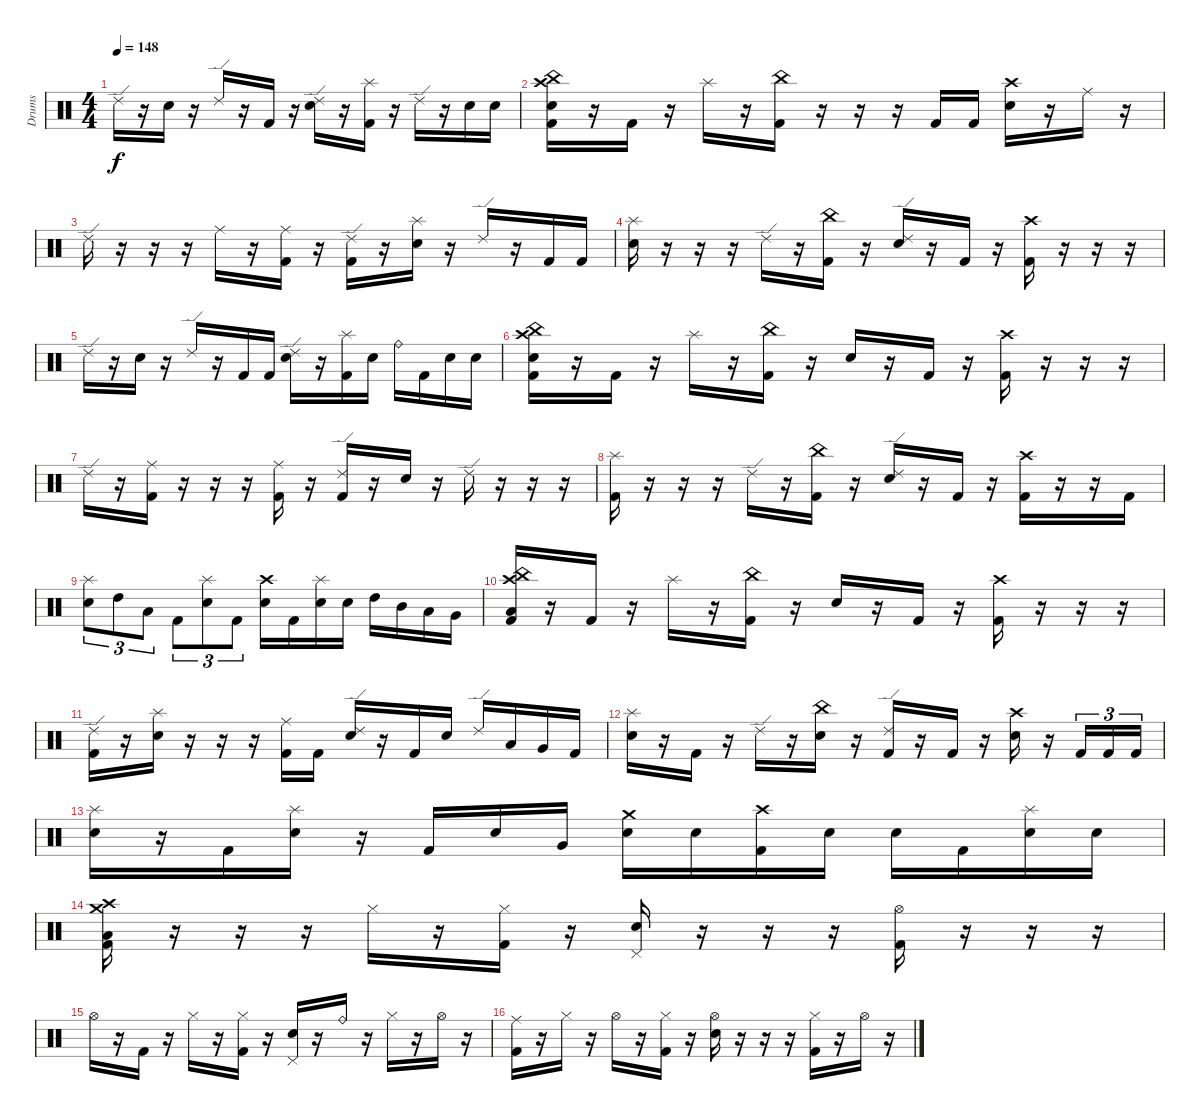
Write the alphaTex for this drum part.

\track ("Drums" "Drums") {instrument percussion}
\staff {score}
\articulation defaults
\ts (4 4)
\tempo 148
\clef neutral
\ks c "Ride (edge) 2".16{dy f}
r.16 "Electric Snare (hit)".16 r.16 "Ride (edge) 2".16 r.16 "Kick (hit) 2".16 r.16 ("Ride (edge) 2" "Electric Snare (hit)").16 r.16 ("Splash (hit)" "Kick (hit) 2").16 r.16 "Ride (edge) 2".16 r.16 "Electric Snare (hit)".16 "Electric Snare (hit)".16 |
("Crash high (hit)" "China (hit)" "Electric Snare (hit)" "Kick (hit) 2").16 r.16 "Kick (hit) 2".16 r.16 "Splash (hit)".16 r.16 ("China (hit)" "Kick (hit) 2").16 r.16 r.16 r.16 "Kick (hit) 2".16 "Kick (hit) 2".16 ("Crash high (hit)" "Electric Snare (hit)").16 r.16 "Ride (middle)".16 r.16 |
"Ride (edge) 2".16 r.16 r.16 r.16 "Ride (middle)".16 r.16 ("Ride (middle)" "Kick (hit) 2").16 r.16 ("Ride (edge) 2" "Kick (hit) 2").16 r.16 ("Splash (hit)" "Electric Snare (hit)").16 r.16 "Ride (edge) 2".16 r.16 "Kick (hit) 2".16 "Kick (hit) 2".16 |
("Splash (hit)" "Electric Snare (hit)").16 r.16 r.16 r.16 "Ride (edge) 2".16 r.16 ("China (hit)" "Kick (hit) 2").16 r.16 ("Ride (edge) 2" "Electric Snare (hit)").16 r.16 "Kick (hit) 2".16 r.16 ("Crash high (hit)" "Kick (hit) 2").16 r.16 r.16 r.16 |
"Ride (edge) 2".16 r.16 "Electric Snare (hit)".16 r.16 "Ride (edge) 2".16 r.16 "Kick (hit) 2".16 "Kick (hit) 2".16 ("Ride (edge) 2" "Electric Snare (hit)").16 r.16 ("Splash (hit)" "Kick (hit) 2").16 "Electric Snare (hit)".16 "Ride (bell)".16 "Kick (hit) 2".16 "Electric Snare (hit)".16 "Electric Snare (hit)".16 |
("Crash high (hit)" "China (hit)" "Electric Snare (hit)" "Kick (hit) 2").16 r.16 "Kick (hit) 2".16 r.16 "Splash (hit)".16 r.16 ("China (hit)" "Kick (hit) 2").16 r.16 "Electric Snare (hit)".16 r.16 "Kick (hit) 2".16 r.16 ("Crash high (hit)" "Kick (hit) 2").16 r.16 r.16 r.16 |
"Ride (edge) 2".16 r.16 ("Ride (middle)" "Kick (hit) 2").16 r.16 r.16 r.16 ("Ride (middle)" "Kick (hit) 2").16 r.16 ("Ride (edge) 2" "Kick (hit) 2").16 r.16 "Electric Snare (hit)".16 r.16 "Ride (edge) 2".16 r.16 r.16 r.16 |
("Splash (hit)" "Kick (hit) 2").16 r.16 r.16 r.16 "Ride (edge) 2".16 r.16 ("China (hit)" "Kick (hit) 2").16 r.16 ("Ride (edge) 2" "Electric Snare (hit)").16 r.16 "Kick (hit) 2".16 r.16 ("Crash high (hit)" "Kick (hit) 2").16 r.16 r.16 "Kick (hit) 2".16 |
("Splash (hit)" "Electric Snare (hit)").8{tu (3 2)} "High Tom (hit)".8{tu (3 2)} "Low Floor Tom (hit)".8{tu (3 2)} "Kick (hit) 2".8{tu (3 2)} ("Splash (hit)" "Electric Snare (hit)").8{tu (3 2)} "Kick (hit) 2".8{tu (3 2)} ("Crash high (hit)" "Electric Snare (hit)").16 "Kick (hit) 2".16 ("Splash (hit)" "Electric Snare (hit)").16 "Electric Snare (hit)".16 "High Tom (hit)".16 "Mid Tom (hit)".16 "Low Tom (hit)".16 "Very Low Tom (hit)".16 |
("Crash high (hit)" "China (hit)" "Low Floor Tom (hit)" "Kick (hit) 2").16 r.16 "Kick (hit) 2".16 r.16 "Splash (hit)".16 r.16 ("China (hit)" "Kick (hit) 2").16 r.16 "Electric Snare (hit)".16 r.16 "Kick (hit) 2".16 r.16 ("Crash high (hit)" "Kick (hit) 2").16 r.16 r.16 r.16 |
("Ride (edge) 2" "Kick (hit) 2").16 r.16 ("Splash (hit)" "Electric Snare (hit)").16 r.16 r.16 r.16 ("Ride (middle)" "Kick (hit) 2").16 "Kick (hit) 2".16 ("Ride (edge) 2" "Electric Snare (hit)").16 r.16 "Kick (hit) 2".16 "Electric Snare (hit)".16 "Ride (edge) 2".16 "Low Tom (hit)".16 "Very Low Tom (hit)".16 "Kick (hit) 2".16 |
("Splash (hit)" "Electric Snare (hit)").16 r.16 "Kick (hit) 2".16 r.16 "Ride (edge) 2".16 r.16 ("China (hit)" "Electric Snare (hit)").16 r.16 ("Ride (edge) 2" "Kick (hit) 2").16 r.16 "Kick (hit) 2".16 r.16 ("Crash high (hit)" "Electric Snare (hit)").16 r.16 "Kick (hit) 2".16{tu (3 2)} "Kick (hit) 2".16{tu (3 2)} "Kick (hit) 2".16{tu (3 2)} |
("Splash (hit)" "Electric Snare (hit)").16 r.16 "Kick (hit) 2".16 ("Splash (hit)" "Electric Snare (hit)").16 r.16 "Kick (hit) 2".16 "Electric Snare (hit)".16 "Very Low Tom (hit)".16 ("Crash medium (hit)" "Electric Snare (hit)").16 "Electric Snare (hit)".16 ("Crash high (hit)" "Kick (hit) 2").16 "Electric Snare (hit)".16 "Electric Snare (hit)".16 "Kick (hit) 2".16 ("Splash (hit)" "Electric Snare (hit)").16 "Electric Snare (hit)".16 |
("Crash high (hit)" "Crash medium (hit)" "Low Floor Tom (hit)" "Kick (hit) 2").16 r.16 r.16 r.16 "Hi-Hat (closed)".16 r.16 ("Hi-Hat (closed)" "Kick (hit) 2").16 r.16 ("Pedal Hi-Hat (hit)" "Electric Snare (hit)").16 r.16 r.16 r.16 ("Hi-Hat (open)" "Kick (hit) 2").16 r.16 r.16 r.16 |
"Hi-Hat (open)".16 r.16 "Kick (hit) 2".16 r.16 "Hi-Hat (closed)".16 r.16 ("Hi-Hat (closed)" "Kick (hit) 2").16 r.16 ("Pedal Hi-Hat (hit)" "Electric Snare (hit)").16 r.16 "Ride (bell)".16 r.16 "Hi-Hat (closed)".16 r.16 "Hi-Hat (open)".16 r.16 |
("Ride (middle)" "Kick (hit) 2").16 r.16 "Hi-Hat (closed)".16 r.16 "Hi-Hat (open)".16 r.16 ("Hi-Hat (closed)" "Kick (hit) 2").16 r.16 ("Hi-Hat (open)" "Electric Snare (hit)").16 r.16 r.16 r.16 ("Hi-Hat (closed)" "Kick (hit) 2").16 r.16 "Hi-Hat (open)".16 r.16
